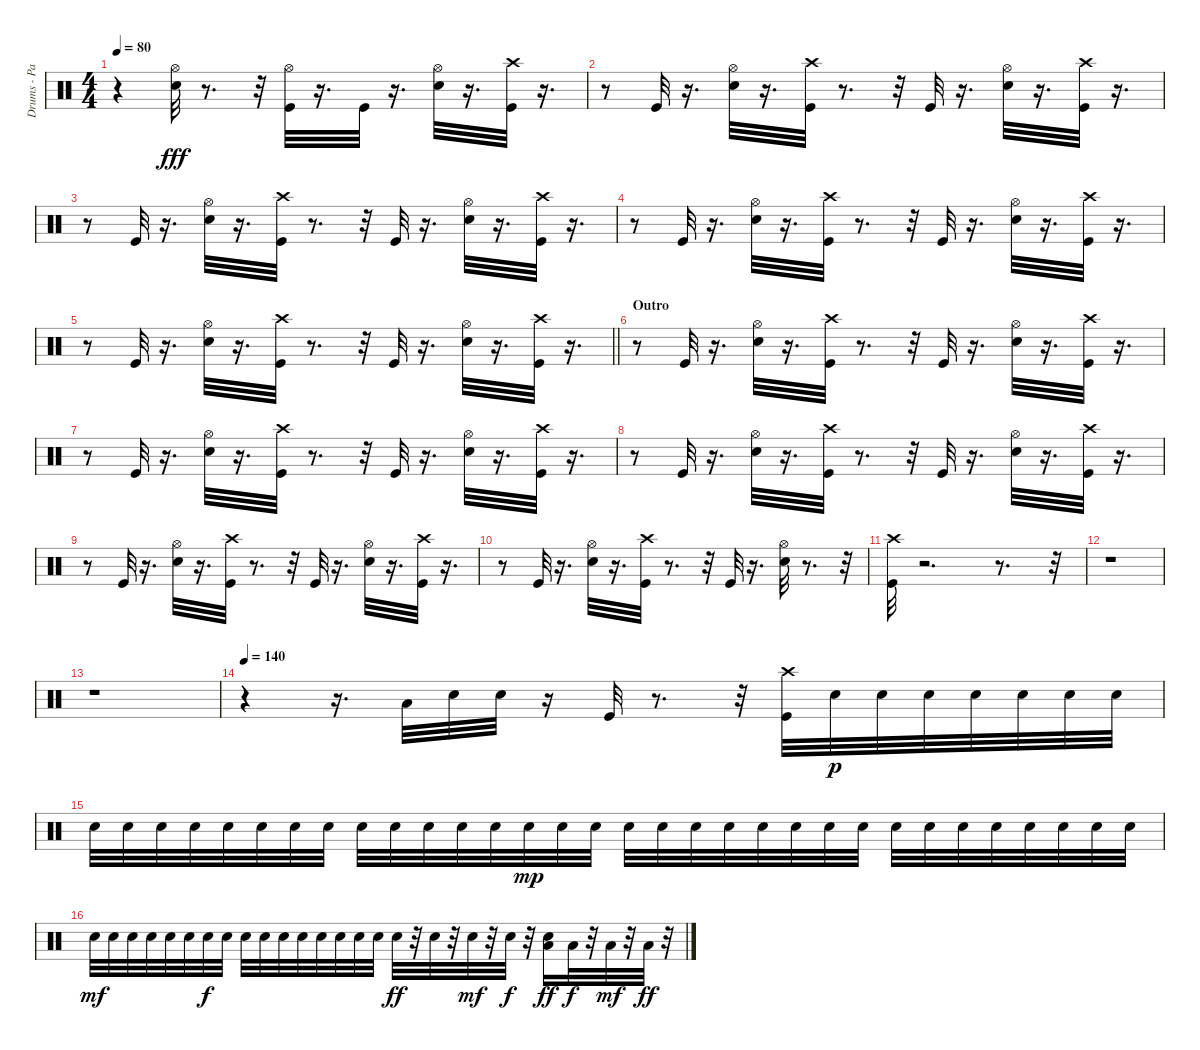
\track ("Drums - Paice" "Drums - Pa") {instrument percussion}
\staff {score}
\articulation defaults
\ts (4 4)
\tempo 80
\clef neutral
\ks c
r.4{dy fff} ("Hi-Hat (open)" "Snare (hit) 2").32 r.8{d} r.32 ("Kick (hit)" "Hi-Hat (open)").32 r.16{d} "Kick (hit)".32 r.16{d} ("Snare (hit) 2" "Hi-Hat (open)").32 r.16{d} ("Kick (hit)" "Crash high (hit)").32 r.16{d} |
r.8 "Kick (hit)".32 r.16{d} ("Hi-Hat (open)" "Snare (hit) 2").32 r.16{d} ("Kick (hit)" "Crash high (hit)").32 r.8{d} r.32 "Kick (hit)".32 r.16{d} ("Snare (hit) 2" "Hi-Hat (open)").32 r.16{d} ("Kick (hit)" "Crash high (hit)").32 r.16{d} |
r.8 "Kick (hit)".32 r.16{d} ("Snare (hit) 2" "Hi-Hat (open)").32 r.16{d} ("Crash high (hit)" "Kick (hit)").32 r.8{d} r.32 "Kick (hit)".32 r.16{d} ("Snare (hit) 2" "Hi-Hat (open)").32 r.16{d} ("Crash high (hit)" "Kick (hit)").32 r.16{d} |
r.8 "Kick (hit)".32 r.16{d} ("Snare (hit) 2" "Hi-Hat (open)").32 r.16{d} ("Kick (hit)" "Crash high (hit)").32 r.8{d} r.32 "Kick (hit)".32 r.16{d} ("Hi-Hat (open)" "Snare (hit) 2").32 r.16{d} ("Crash high (hit)" "Kick (hit)").32 r.16{d} |
\barLineRight lightlight
r.8 "Kick (hit)".32 r.16{d} ("Hi-Hat (open)" "Snare (hit) 2").32 r.16{d} ("Kick (hit)" "Crash high (hit)").32 r.8{d} r.32 "Kick (hit)".32 r.16{d} ("Snare (hit) 2" "Hi-Hat (open)").32 r.16{d} ("Crash high (hit)" "Kick (hit)").32 r.16{d} |
\section ("" "Outro")
r.8 "Kick (hit)".32 r.16{d} ("Snare (hit) 2" "Hi-Hat (open)").32 r.16{d} ("Crash high (hit)" "Kick (hit)").32 r.8{d} r.32 "Kick (hit)".32 r.16{d} ("Snare (hit) 2" "Hi-Hat (open)").32 r.16{d} ("Crash high (hit)" "Kick (hit)").32 r.16{d} |
r.8 "Kick (hit)".32 r.16{d} ("Snare (hit) 2" "Hi-Hat (open)").32 r.16{d} ("Kick (hit)" "Crash high (hit)").32 r.8{d} r.32 "Kick (hit)".32 r.16{d} ("Snare (hit) 2" "Hi-Hat (open)").32 r.16{d} ("Kick (hit)" "Crash high (hit)").32 r.16{d} |
r.8 "Kick (hit)".32 r.16{d} ("Hi-Hat (open)" "Snare (hit) 2").32 r.16{d} ("Crash high (hit)" "Kick (hit)").32 r.8{d} r.32 "Kick (hit)".32 r.16{d} ("Snare (hit) 2" "Hi-Hat (open)").32 r.16{d} ("Kick (hit)" "Crash high (hit)").32 r.16{d} |
r.8 "Kick (hit)".32 r.16{d} ("Snare (hit) 2" "Hi-Hat (open)").32 r.16{d} ("Kick (hit)" "Crash high (hit)").32 r.8{d} r.32 "Kick (hit)".32 r.16{d} ("Hi-Hat (open)" "Snare (hit) 2").32 r.16{d} ("Crash high (hit)" "Kick (hit)").32 r.16{d} |
r.8 "Kick (hit)".32 r.16{d} ("Hi-Hat (open)" "Snare (hit) 2").32 r.16{d} ("Crash high (hit)" "Kick (hit)").32 r.8{d} r.32 "Kick (hit)".32 r.16{d} ("Hi-Hat (open)" "Snare (hit) 2").32 r.8{d} r.32 |
("Crash high (hit)" "Kick (hit)").32 r.2{d} r.8{d} r.32 |
r.1 |
r.1 |
\tempo 140
r.4 r.16{d} "Low Tom (hit)".32 "Snare (hit) 2".32 "Snare (hit) 2".32 r.16 "Kick (hit)".32 r.8{d} r.32 ("Kick (hit)" "Crash high (hit)").32 "Snare (hit) 2".32{dy p} "Snare (hit) 2".32 "Snare (hit) 2".32 "Snare (hit) 2".32 "Snare (hit) 2".32 "Snare (hit) 2".32 "Snare (hit) 2".32 |
"Snare (hit) 2".32 "Snare (hit) 2".32 "Snare (hit) 2".32 "Snare (hit) 2".32 "Snare (hit) 2".32 "Snare (hit) 2".32 "Snare (hit) 2".32 "Snare (hit) 2".32 "Snare (hit) 2".32 "Snare (hit) 2".32 "Snare (hit) 2".32 "Snare (hit) 2".32 "Snare (hit) 2".32 "Snare (hit) 2".32{dy mp} "Snare (hit) 2".32 "Snare (hit) 2".32 "Snare (hit) 2".32 "Snare (hit) 2".32 "Snare (hit) 2".32 "Snare (hit) 2".32 "Snare (hit) 2".32 "Snare (hit) 2".32 "Snare (hit) 2".32 "Snare (hit) 2".32 "Snare (hit) 2".32 "Snare (hit) 2".32 "Snare (hit) 2".32 "Snare (hit) 2".32 "Snare (hit) 2".32 "Snare (hit) 2".32 "Snare (hit) 2".32 "Snare (hit) 2".32 |
"Snare (hit) 2".32{dy mf} "Snare (hit) 2".32 "Snare (hit) 2".32 "Snare (hit) 2".32 "Snare (hit) 2".32 "Snare (hit) 2".32 "Snare (hit) 2".32{dy f} "Snare (hit) 2".32 "Snare (hit) 2".32 "Snare (hit) 2".32 "Snare (hit) 2".32 "Snare (hit) 2".32 "Snare (hit) 2".32 "Snare (hit) 2".32 "Snare (hit) 2".32 "Snare (hit) 2".32 "Snare (hit) 2".32{dy ff} r.32 "Snare (hit) 2".32 r.32 "Snare (hit) 2".32{dy mf} r.32 "Snare (hit) 2".32{dy f} r.32 ("Low Tom (hit)" "Snare (hit) 2").16{dy ff} "Low Tom (hit)".32{dy f} r.32 "Low Tom (hit)".32{dy mf} r.32 "Low Tom (hit)".32{dy ff} r.32
